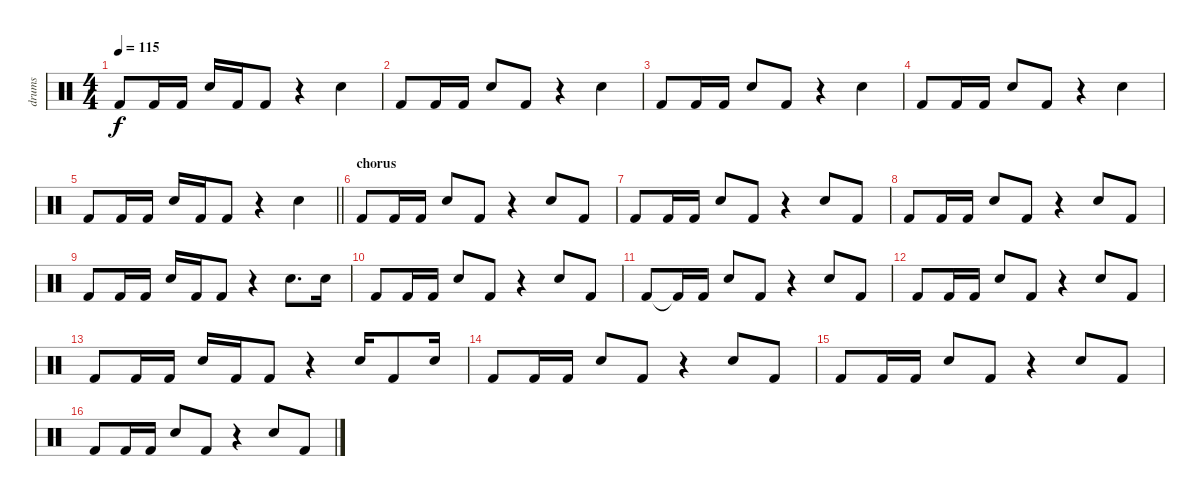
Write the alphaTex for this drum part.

\track ("drums" "drums") {instrument percussion}
\staff {score}
\articulation defaults
\ts (4 4)
\tempo 115
\clef neutral
\ks c "Kick (hit) 2".8{dy f} "Kick (hit) 2".16 "Kick (hit) 2".16 "Snare (hit) 2".16 "Kick (hit) 2".16 "Kick (hit) 2".8
r.4 "Snare (hit) 2".4 |
"Kick (hit) 2".8 "Kick (hit) 2".16 "Kick (hit) 2".16 "Snare (hit) 2".8 "Kick (hit) 2".8 r.4 "Snare (hit) 2".4 |
"Kick (hit) 2".8 "Kick (hit) 2".16 "Kick (hit) 2".16 "Snare (hit) 2".8 "Kick (hit) 2".8 r.4 "Snare (hit) 2".4 |
"Kick (hit) 2".8 "Kick (hit) 2".16 "Kick (hit) 2".16 "Snare (hit) 2".8 "Kick (hit) 2".8 r.4 "Snare (hit) 2".4 |
\barLineRight lightlight "Kick (hit) 2".8 "Kick (hit) 2".16 "Kick (hit) 2".16 "Snare (hit) 2".16 "Kick (hit) 2".16 "Kick (hit) 2".8
r.4 "Snare (hit) 2".4 |
\section ("" "chorus")
"Kick (hit) 2".8 "Kick (hit) 2".16 "Kick (hit) 2".16 "Snare (hit) 2".8 "Kick (hit) 2".8 r.4 "Snare (hit) 2".8 "Kick (hit) 2".8 |
"Kick (hit) 2".8 "Kick (hit) 2".16 "Kick (hit) 2".16 "Snare (hit) 2".8 "Kick (hit) 2".8 r.4 "Snare (hit) 2".8 "Kick (hit) 2".8 |
"Kick (hit) 2".8 "Kick (hit) 2".16 "Kick (hit) 2".16 "Snare (hit) 2".8 "Kick (hit) 2".8 r.4 "Snare (hit) 2".8 "Kick (hit) 2".8 |
"Kick (hit) 2".8 "Kick (hit) 2".16 "Kick (hit) 2".16 "Snare (hit) 2".16 "Kick (hit) 2".16 "Kick (hit) 2".8 r.4 "Snare (hit) 2".8{d} "Snare (hit) 2".16 |
"Kick (hit) 2".8 "Kick (hit) 2".16 "Kick (hit) 2".16 "Snare (hit) 2".8 "Kick (hit) 2".8 r.4 "Snare (hit) 2".8 "Kick (hit) 2".8 |
"Kick (hit) 2".8 "Kick (hit) 2"{t}.16 "Kick (hit) 2".16 "Snare (hit) 2".8 "Kick (hit) 2".8 r.4 "Snare (hit) 2".8 "Kick (hit) 2".8 |
"Kick (hit) 2".8 "Kick (hit) 2".16 "Kick (hit) 2".16 "Snare (hit) 2".8 "Kick (hit) 2".8 r.4 "Snare (hit) 2".8 "Kick (hit) 2".8 |
"Kick (hit) 2".8 "Kick (hit) 2".16 "Kick (hit) 2".16 "Snare (hit) 2".16 "Kick (hit) 2".16 "Kick (hit) 2".8 r.4 "Snare (hit) 2".16 "Kick (hit) 2".8 "Snare (hit) 2".16 |
"Kick (hit) 2".8 "Kick (hit) 2".16 "Kick (hit) 2".16 "Snare (hit) 2".8 "Kick (hit) 2".8 r.4 "Snare (hit) 2".8 "Kick (hit) 2".8 |
"Kick (hit) 2".8 "Kick (hit) 2".16 "Kick (hit) 2".16 "Snare (hit) 2".8 "Kick (hit) 2".8 r.4 "Snare (hit) 2".8 "Kick (hit) 2".8 |
"Kick (hit) 2".8 "Kick (hit) 2".16 "Kick (hit) 2".16 "Snare (hit) 2".8 "Kick (hit) 2".8 r.4 "Snare (hit) 2".8 "Kick (hit) 2".8
